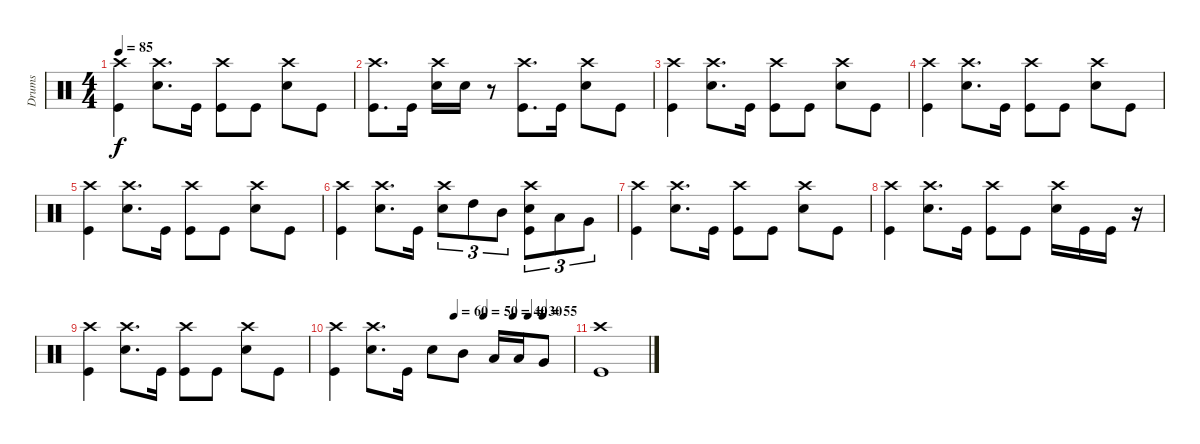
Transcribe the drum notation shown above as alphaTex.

\track ("Drums" "Drums") {instrument percussion}
\staff {score}
\articulation defaults
\ts (4 4)
\tempo 85
\clef neutral
\ks c
("Crash high (hit)" "Kick (hit)").4{dy f} ("Crash high (hit)" "Snare (hit) 2").8{d} "Kick (hit)".16 ("Crash high (hit)" "Kick (hit)").8 "Kick (hit)".8 ("Crash high (hit)" "Snare (hit) 2").8 "Kick (hit)".8 |
("Crash high (hit)" "Kick (hit)").8{d} "Kick (hit)".16 ("Crash high (hit)" "Snare (hit) 2").16 "Snare (hit) 2".16 r.8 ("Crash high (hit)" "Kick (hit)").8{d} "Kick (hit)".16 ("Snare (hit) 2" "Crash high (hit)").8 "Kick (hit)".8 |
("Crash high (hit)" "Kick (hit)").4 ("Crash high (hit)" "Snare (hit) 2").8{d} "Kick (hit)".16 ("Crash high (hit)" "Kick (hit)").8 "Kick (hit)".8 ("Crash high (hit)" "Snare (hit) 2").8 "Kick (hit)".8 |
("Crash high (hit)" "Kick (hit)").4 ("Crash high (hit)" "Snare (hit) 2").8{d} "Kick (hit)".16 ("Crash high (hit)" "Kick (hit)").8 "Kick (hit)".8 ("Crash high (hit)" "Snare (hit) 2").8 "Kick (hit)".8 |
("Crash high (hit)" "Kick (hit)").4 ("Crash high (hit)" "Snare (hit) 2").8{d} "Kick (hit)".16 ("Crash high (hit)" "Kick (hit)").8 "Kick (hit)".8 ("Crash high (hit)" "Snare (hit) 2").8 "Kick (hit)".8 |
("Crash high (hit)" "Kick (hit)").4 ("Crash high (hit)" "Snare (hit) 2").8{d} "Kick (hit)".16 ("Crash high (hit)" "Snare (hit) 2").8{tu (3 2)} "High Tom (hit)".8{tu (3 2)} "Mid Tom (hit)".8{tu (3 2)} ("Snare (hit) 2" "Crash high (hit)" "Kick (hit)").8{tu (3 2)} "Low Tom (hit)".8{tu (3 2)} "Very Low Tom (hit)".8{tu (3 2)} |
("Crash high (hit)" "Kick (hit)").4 ("Crash high (hit)" "Snare (hit) 2").8{d} "Kick (hit)".16 ("Crash high (hit)" "Kick (hit)").8 "Kick (hit)".8 ("Crash high (hit)" "Snare (hit) 2").8 "Kick (hit)".8 |
("Crash high (hit)" "Kick (hit)").4 ("Crash high (hit)" "Snare (hit) 2").8{d} "Kick (hit)".16 ("Crash high (hit)" "Kick (hit)").8 "Kick (hit)".8 ("Crash high (hit)" "Snare (hit) 2").16 "Kick (hit)".16 "Kick (hit)".16 r.16 |
("Crash high (hit)" "Kick (hit)").4 ("Crash high (hit)" "Snare (hit) 2").8{d} "Kick (hit)".16 ("Crash high (hit)" "Kick (hit)").8 "Kick (hit)".8 ("Crash high (hit)" "Snare (hit) 2").8 "Kick (hit)".8 |
\tempo (60 0.5)
\tempo (50 0.625)
\tempo (40 0.75)
\tempo (30 0.8125)
\tempo (55 0.875)
("Crash high (hit)" "Kick (hit)").4 ("Crash high (hit)" "Snare (hit) 2").8{d} "Kick (hit)".16 "Snare (hit) 2".8 "Mid Tom (hit)".8 "Low Tom (hit)".16 "Low Tom (hit)".16 "Very Low Tom (hit)".8 |
("Crash high (hit)" "Kick (hit)").1
